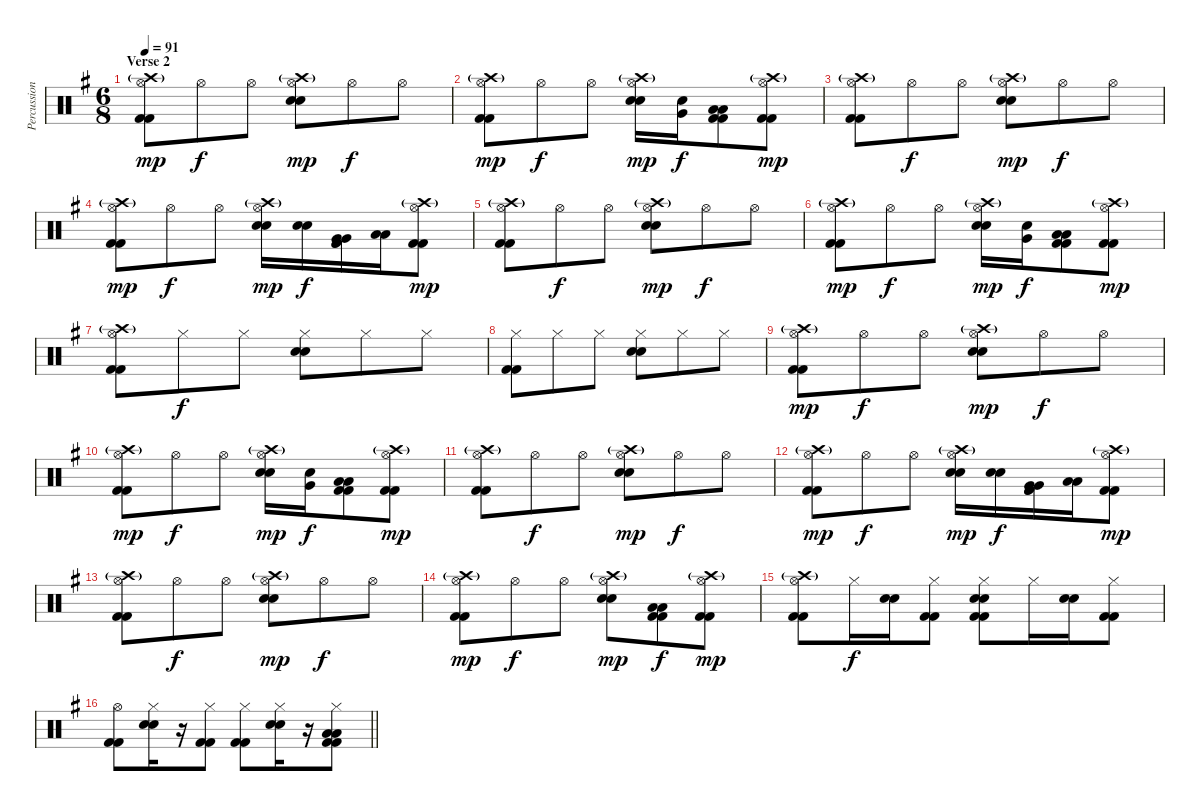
\track ("Percussion" "Percussion") {instrument percussion}
\staff {score}
\articulation defaults
\ts (6 8)
\section ("" "Verse 2")
\tempo 91
\clef neutral
\ks eminor
("Hi-Hat (open)" "Crash high (hit)"{g} "Kick (hit) 2" "Kick (hit) 2").8{dy mp} "Hi-Hat (open)".8{dy f} "Hi-Hat (open)".8 ("Hi-Hat (open)" "Crash high (hit)"{g} "Snare (hit) 2" "Snare (hit) 2").8{dy mp} "Hi-Hat (open)".8{dy f} "Hi-Hat (open)".8 |
("Hi-Hat (open)" "Crash high (hit)"{g} "Kick (hit) 2" "Kick (hit) 2").8{dy mp} "Hi-Hat (open)".8{dy f} "Hi-Hat (open)".8 ("Hi-Hat (open)" "Crash high (hit)"{g} "Snare (hit) 2" "Snare (hit) 2").16{dy mp} ("Snare (hit) 2" "Very Low Tom (hit)").16{dy f} ("Low Floor Tom (hit)" "Low Floor Tom (hit)" "Kick (hit) 2" "Kick (hit) 2").8 ("Hi-Hat (open)" "Crash high (hit)"{g} "Kick (hit) 2" "Kick (hit) 2").8{dy mp} |
("Hi-Hat (open)" "Crash high (hit)"{g} "Kick (hit) 2" "Kick (hit) 2").8 "Hi-Hat (open)".8{dy f} "Hi-Hat (open)".8 ("Hi-Hat (open)" "Crash high (hit)"{g} "Snare (hit) 2" "Snare (hit) 2").8{dy mp} "Hi-Hat (open)".8{dy f} "Hi-Hat (open)".8 |
("Hi-Hat (open)" "Crash high (hit)"{g} "Kick (hit) 2" "Kick (hit) 2").8{dy mp} "Hi-Hat (open)".8{dy f} "Hi-Hat (open)".8 ("Hi-Hat (open)" "Crash high (hit)"{g} "Snare (hit) 2" "Snare (hit) 2").16{dy mp} ("Snare (hit) 2" "Snare (hit) 2").16{dy f} ("Very Low Tom (hit)" "Very Low Tom (hit)" "Kick (hit) 2" "Kick (hit) 2").16 ("Low Floor Tom (hit)" "Low Floor Tom (hit)").16 ("Hi-Hat (open)" "Crash high (hit)"{g} "Kick (hit) 2" "Kick (hit) 2").8{dy mp} |
("Hi-Hat (open)" "Crash high (hit)"{g} "Kick (hit) 2" "Kick (hit) 2").8 "Hi-Hat (open)".8{dy f} "Hi-Hat (open)".8 ("Hi-Hat (open)" "Crash high (hit)"{g} "Snare (hit) 2" "Snare (hit) 2").8{dy mp} "Hi-Hat (open)".8{dy f} "Hi-Hat (open)".8 |
("Hi-Hat (open)" "Crash high (hit)"{g} "Kick (hit) 2" "Kick (hit) 2").8{dy mp} "Hi-Hat (open)".8{dy f} "Hi-Hat (open)".8 ("Hi-Hat (open)" "Crash high (hit)"{g} "Snare (hit) 2" "Snare (hit) 2").16{dy mp} ("Snare (hit) 2" "Very Low Tom (hit)").16{dy f} ("Low Floor Tom (hit)" "Low Floor Tom (hit)" "Kick (hit) 2" "Kick (hit) 2").8 ("Hi-Hat (open)" "Crash high (hit)"{g} "Kick (hit) 2" "Kick (hit) 2").8{dy mp} |
("Hi-Hat (open)" "Crash high (hit)"{g} "Kick (hit) 2" "Kick (hit) 2").8 "Hi-Hat (closed)".8{dy f} "Hi-Hat (closed)".8 ("Hi-Hat (closed)" "Snare (hit) 2" "Snare (hit) 2").8 "Hi-Hat (closed)".8 "Hi-Hat (closed)".8 |
("Hi-Hat (closed)" "Kick (hit) 2" "Kick (hit) 2").8 "Hi-Hat (closed)".8 "Hi-Hat (closed)".8 ("Hi-Hat (closed)" "Snare (hit) 2" "Snare (hit) 2").8 "Hi-Hat (closed)".8 "Hi-Hat (closed)".8 |
("Hi-Hat (open)" "Crash high (hit)"{g} "Kick (hit) 2" "Kick (hit) 2").8{dy mp} "Hi-Hat (open)".8{dy f} "Hi-Hat (open)".8 ("Hi-Hat (open)" "Crash high (hit)"{g} "Snare (hit) 2" "Snare (hit) 2").8{dy mp} "Hi-Hat (open)".8{dy f} "Hi-Hat (open)".8 |
("Hi-Hat (open)" "Crash high (hit)"{g} "Kick (hit) 2" "Kick (hit) 2").8{dy mp} "Hi-Hat (open)".8{dy f} "Hi-Hat (open)".8 ("Hi-Hat (open)" "Crash high (hit)"{g} "Snare (hit) 2" "Snare (hit) 2").16{dy mp} ("Snare (hit) 2" "Very Low Tom (hit)").16{dy f} ("Low Floor Tom (hit)" "Low Floor Tom (hit)" "Kick (hit) 2" "Kick (hit) 2").8 ("Hi-Hat (open)" "Crash high (hit)"{g} "Kick (hit) 2" "Kick (hit) 2").8{dy mp} |
("Hi-Hat (open)" "Crash high (hit)"{g} "Kick (hit) 2" "Kick (hit) 2").8 "Hi-Hat (open)".8{dy f} "Hi-Hat (open)".8 ("Hi-Hat (open)" "Crash high (hit)"{g} "Snare (hit) 2" "Snare (hit) 2").8{dy mp} "Hi-Hat (open)".8{dy f} "Hi-Hat (open)".8 |
("Hi-Hat (open)" "Crash high (hit)"{g} "Kick (hit) 2" "Kick (hit) 2").8{dy mp} "Hi-Hat (open)".8{dy f} "Hi-Hat (open)".8 ("Hi-Hat (open)" "Crash high (hit)"{g} "Snare (hit) 2" "Snare (hit) 2").16{dy mp} ("Snare (hit) 2" "Snare (hit) 2").16{dy f} ("Very Low Tom (hit)" "Very Low Tom (hit)" "Kick (hit) 2" "Kick (hit) 2").16 ("Low Floor Tom (hit)" "Low Floor Tom (hit)").16 ("Hi-Hat (open)" "Crash high (hit)"{g} "Kick (hit) 2" "Kick (hit) 2").8{dy mp} |
("Hi-Hat (open)" "Crash high (hit)"{g} "Kick (hit) 2" "Kick (hit) 2").8 "Hi-Hat (open)".8{dy f} "Hi-Hat (open)".8 ("Hi-Hat (open)" "Crash high (hit)"{g} "Snare (hit) 2" "Snare (hit) 2").8{dy mp} "Hi-Hat (open)".8{dy f} "Hi-Hat (open)".8 |
("Hi-Hat (open)" "Crash high (hit)"{g} "Kick (hit) 2" "Kick (hit) 2").8{dy mp} "Hi-Hat (open)".8{dy f} "Hi-Hat (open)".8 ("Hi-Hat (open)" "Crash high (hit)"{g} "Snare (hit) 2" "Snare (hit) 2").8{dy mp} ("Low Floor Tom (hit)" "Low Floor Tom (hit)" "Kick (hit) 2" "Kick (hit) 2").8{dy f} ("Hi-Hat (open)" "Crash high (hit)"{g} "Kick (hit) 2" "Kick (hit) 2").8{dy mp} |
("Hi-Hat (open)" "Crash high (hit)"{g} "Kick (hit) 2" "Kick (hit) 2").8 "Hi-Hat (closed)".16{dy f} ("Snare (hit) 2" "Snare (hit) 2").16 ("Hi-Hat (closed)" "Kick (hit) 2" "Kick (hit) 2").8 ("Hi-Hat (closed)" "Snare (hit) 2" "Snare (hit) 2" "Kick (hit) 2" "Kick (hit) 2").8 "Hi-Hat (closed)".16 ("Snare (hit) 2" "Snare (hit) 2").16 ("Hi-Hat (closed)" "Kick (hit) 2" "Kick (hit) 2").8 |
\barLineRight lightlight
("Hi-Hat (open)" "Kick (hit) 2" "Kick (hit) 2").8 ("Hi-Hat (closed)" "Snare (hit) 2" "Snare (hit) 2").16 r.16 ("Hi-Hat (closed)" "Kick (hit) 2" "Kick (hit) 2").8 ("Hi-Hat (closed)" "Kick (hit) 2" "Kick (hit) 2").8 ("Hi-Hat (closed)" "Snare (hit) 2" "Snare (hit) 2").16 r.16 ("Hi-Hat (closed)" "Low Floor Tom (hit)" "Low Floor Tom (hit)" "Kick (hit) 2" "Kick (hit) 2").8
